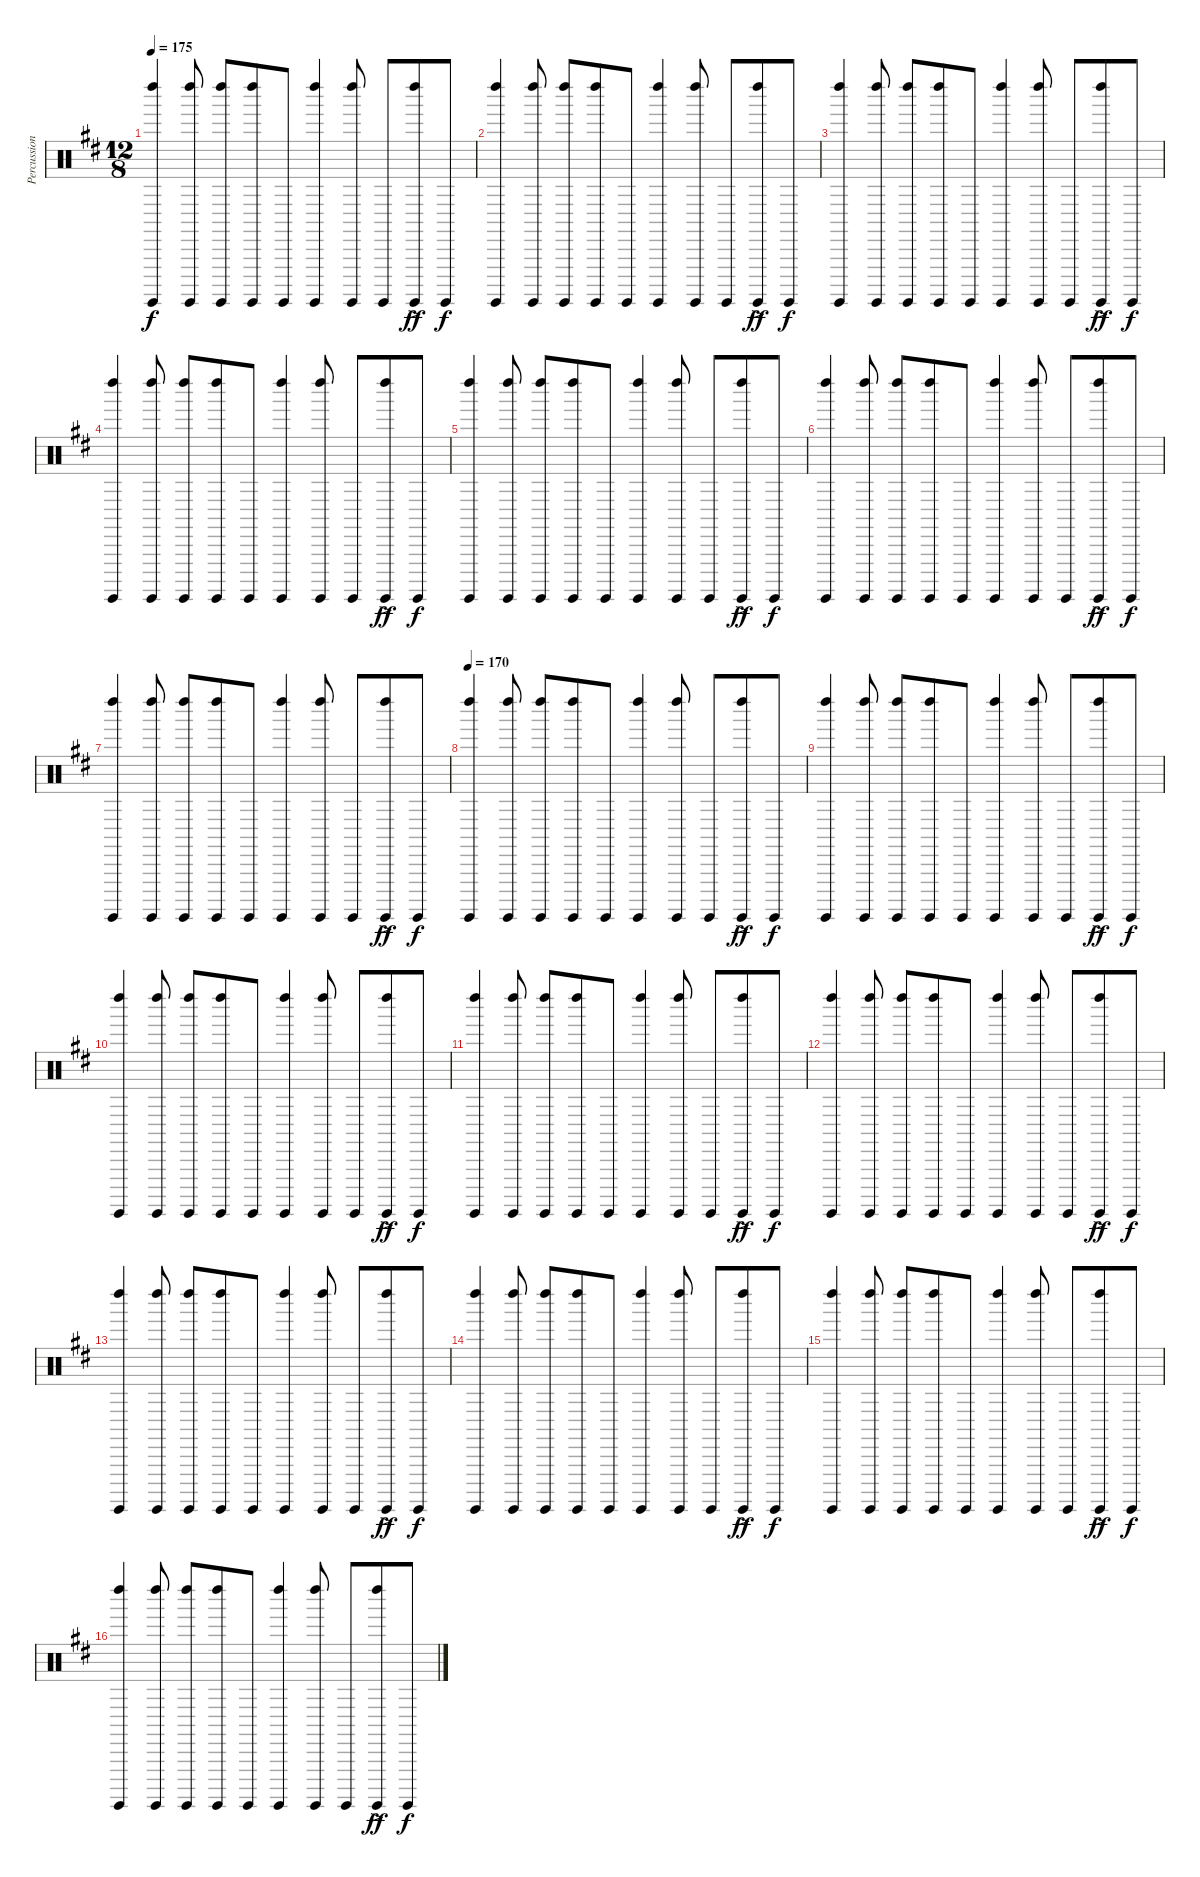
\track ("Percussion" "Percussion") {instrument percussion}
\staff {score}
\articulation defaults
\ts (12 8)
\tempo 175
\clef neutral
\ks d
("Surdo (hit)" "Left Maraca (hit)").4{dy f} ("Surdo (hit)" "Left Maraca (hit)").8 ("Surdo (hit)" "Left Maraca (hit)").8 ("Surdo (hit)" "Left Maraca (hit)").8 "Surdo (hit)".8 ("Surdo (hit)" "Left Maraca (hit)").4 ("Surdo (hit)" "Left Maraca (hit)").8 "Surdo (hit)".8 ("Surdo (hit)" "Left Maraca (hit)"{ac}).8{dy ff} "Surdo (hit)".8{dy f} |
("Surdo (hit)" "Left Maraca (hit)").4 ("Surdo (hit)" "Left Maraca (hit)").8 ("Surdo (hit)" "Left Maraca (hit)").8 ("Surdo (hit)" "Left Maraca (hit)").8 "Surdo (hit)".8 ("Surdo (hit)" "Left Maraca (hit)").4 ("Surdo (hit)" "Left Maraca (hit)").8 "Surdo (hit)".8 ("Surdo (hit)" "Left Maraca (hit)"{ac}).8{dy ff} "Surdo (hit)".8{dy f} |
("Surdo (hit)" "Left Maraca (hit)").4 ("Surdo (hit)" "Left Maraca (hit)").8 ("Surdo (hit)" "Left Maraca (hit)").8 ("Surdo (hit)" "Left Maraca (hit)").8 "Surdo (hit)".8 ("Surdo (hit)" "Left Maraca (hit)").4 ("Surdo (hit)" "Left Maraca (hit)").8 "Surdo (hit)".8 ("Surdo (hit)" "Left Maraca (hit)"{ac}).8{dy ff} "Surdo (hit)".8{dy f} |
("Surdo (hit)" "Left Maraca (hit)").4 ("Surdo (hit)" "Left Maraca (hit)").8 ("Surdo (hit)" "Left Maraca (hit)").8 ("Surdo (hit)" "Left Maraca (hit)").8 "Surdo (hit)".8 ("Surdo (hit)" "Left Maraca (hit)").4 ("Surdo (hit)" "Left Maraca (hit)").8 "Surdo (hit)".8 ("Surdo (hit)" "Left Maraca (hit)"{ac}).8{dy ff} "Surdo (hit)".8{dy f} |
("Surdo (hit)" "Left Maraca (hit)").4 ("Surdo (hit)" "Left Maraca (hit)").8 ("Surdo (hit)" "Left Maraca (hit)").8 ("Surdo (hit)" "Left Maraca (hit)").8 "Surdo (hit)".8 ("Surdo (hit)" "Left Maraca (hit)").4 ("Surdo (hit)" "Left Maraca (hit)").8 "Surdo (hit)".8 ("Surdo (hit)" "Left Maraca (hit)"{ac}).8{dy ff} "Surdo (hit)".8{dy f} |
("Surdo (hit)" "Left Maraca (hit)").4 ("Surdo (hit)" "Left Maraca (hit)").8 ("Surdo (hit)" "Left Maraca (hit)").8 ("Surdo (hit)" "Left Maraca (hit)").8 "Surdo (hit)".8 ("Surdo (hit)" "Left Maraca (hit)").4 ("Surdo (hit)" "Left Maraca (hit)").8 "Surdo (hit)".8 ("Surdo (hit)" "Left Maraca (hit)"{ac}).8{dy ff} "Surdo (hit)".8{dy f} |
("Surdo (hit)" "Left Maraca (hit)").4 ("Surdo (hit)" "Left Maraca (hit)").8 ("Surdo (hit)" "Left Maraca (hit)").8 ("Surdo (hit)" "Left Maraca (hit)").8 "Surdo (hit)".8 ("Surdo (hit)" "Left Maraca (hit)").4 ("Surdo (hit)" "Left Maraca (hit)").8 "Surdo (hit)".8 ("Surdo (hit)" "Left Maraca (hit)"{ac}).8{dy ff} "Surdo (hit)".8{dy f} |
\tempo 170
("Surdo (hit)" "Left Maraca (hit)").4 ("Surdo (hit)" "Left Maraca (hit)").8 ("Surdo (hit)" "Left Maraca (hit)").8 ("Surdo (hit)" "Left Maraca (hit)").8 "Surdo (hit)".8 ("Surdo (hit)" "Left Maraca (hit)").4 ("Surdo (hit)" "Left Maraca (hit)").8 "Surdo (hit)".8 ("Surdo (hit)" "Left Maraca (hit)"{ac}).8{dy ff} "Surdo (hit)".8{dy f} |
("Surdo (hit)" "Left Maraca (hit)").4 ("Surdo (hit)" "Left Maraca (hit)").8 ("Surdo (hit)" "Left Maraca (hit)").8 ("Surdo (hit)" "Left Maraca (hit)").8 "Surdo (hit)".8 ("Surdo (hit)" "Left Maraca (hit)").4 ("Surdo (hit)" "Left Maraca (hit)").8 "Surdo (hit)".8 ("Surdo (hit)" "Left Maraca (hit)"{ac}).8{dy ff} "Surdo (hit)".8{dy f} |
("Surdo (hit)" "Left Maraca (hit)").4 ("Surdo (hit)" "Left Maraca (hit)").8 ("Surdo (hit)" "Left Maraca (hit)").8 ("Surdo (hit)" "Left Maraca (hit)").8 "Surdo (hit)".8 ("Surdo (hit)" "Left Maraca (hit)").4 ("Surdo (hit)" "Left Maraca (hit)").8 "Surdo (hit)".8 ("Surdo (hit)" "Left Maraca (hit)"{ac}).8{dy ff} "Surdo (hit)".8{dy f} |
("Surdo (hit)" "Left Maraca (hit)").4 ("Surdo (hit)" "Left Maraca (hit)").8 ("Surdo (hit)" "Left Maraca (hit)").8 ("Surdo (hit)" "Left Maraca (hit)").8 "Surdo (hit)".8 ("Surdo (hit)" "Left Maraca (hit)").4 ("Surdo (hit)" "Left Maraca (hit)").8 "Surdo (hit)".8 ("Surdo (hit)" "Left Maraca (hit)"{ac}).8{dy ff} "Surdo (hit)".8{dy f} |
("Surdo (hit)" "Left Maraca (hit)").4 ("Surdo (hit)" "Left Maraca (hit)").8 ("Surdo (hit)" "Left Maraca (hit)").8 ("Surdo (hit)" "Left Maraca (hit)").8 "Surdo (hit)".8 ("Surdo (hit)" "Left Maraca (hit)").4 ("Surdo (hit)" "Left Maraca (hit)").8 "Surdo (hit)".8 ("Surdo (hit)" "Left Maraca (hit)"{ac}).8{dy ff} "Surdo (hit)".8{dy f} |
("Surdo (hit)" "Left Maraca (hit)").4 ("Surdo (hit)" "Left Maraca (hit)").8 ("Surdo (hit)" "Left Maraca (hit)").8 ("Surdo (hit)" "Left Maraca (hit)").8 "Surdo (hit)".8 ("Surdo (hit)" "Left Maraca (hit)").4 ("Surdo (hit)" "Left Maraca (hit)").8 "Surdo (hit)".8 ("Surdo (hit)" "Left Maraca (hit)"{ac}).8{dy ff} "Surdo (hit)".8{dy f} |
("Surdo (hit)" "Left Maraca (hit)").4 ("Surdo (hit)" "Left Maraca (hit)").8 ("Surdo (hit)" "Left Maraca (hit)").8 ("Surdo (hit)" "Left Maraca (hit)").8 "Surdo (hit)".8 ("Surdo (hit)" "Left Maraca (hit)").4 ("Surdo (hit)" "Left Maraca (hit)").8 "Surdo (hit)".8 ("Surdo (hit)" "Left Maraca (hit)"{ac}).8{dy ff} "Surdo (hit)".8{dy f} |
("Surdo (hit)" "Left Maraca (hit)").4 ("Surdo (hit)" "Left Maraca (hit)").8 ("Surdo (hit)" "Left Maraca (hit)").8 ("Surdo (hit)" "Left Maraca (hit)").8 "Surdo (hit)".8 ("Surdo (hit)" "Left Maraca (hit)").4 ("Surdo (hit)" "Left Maraca (hit)").8 "Surdo (hit)".8 ("Surdo (hit)" "Left Maraca (hit)"{ac}).8{dy ff} "Surdo (hit)".8{dy f} |
("Surdo (hit)" "Left Maraca (hit)").4 ("Surdo (hit)" "Left Maraca (hit)").8 ("Surdo (hit)" "Left Maraca (hit)").8 ("Surdo (hit)" "Left Maraca (hit)").8 "Surdo (hit)".8 ("Surdo (hit)" "Left Maraca (hit)").4 ("Surdo (hit)" "Left Maraca (hit)").8 "Surdo (hit)".8 ("Surdo (hit)" "Left Maraca (hit)"{ac}).8{dy ff} "Surdo (hit)".8{dy f}
